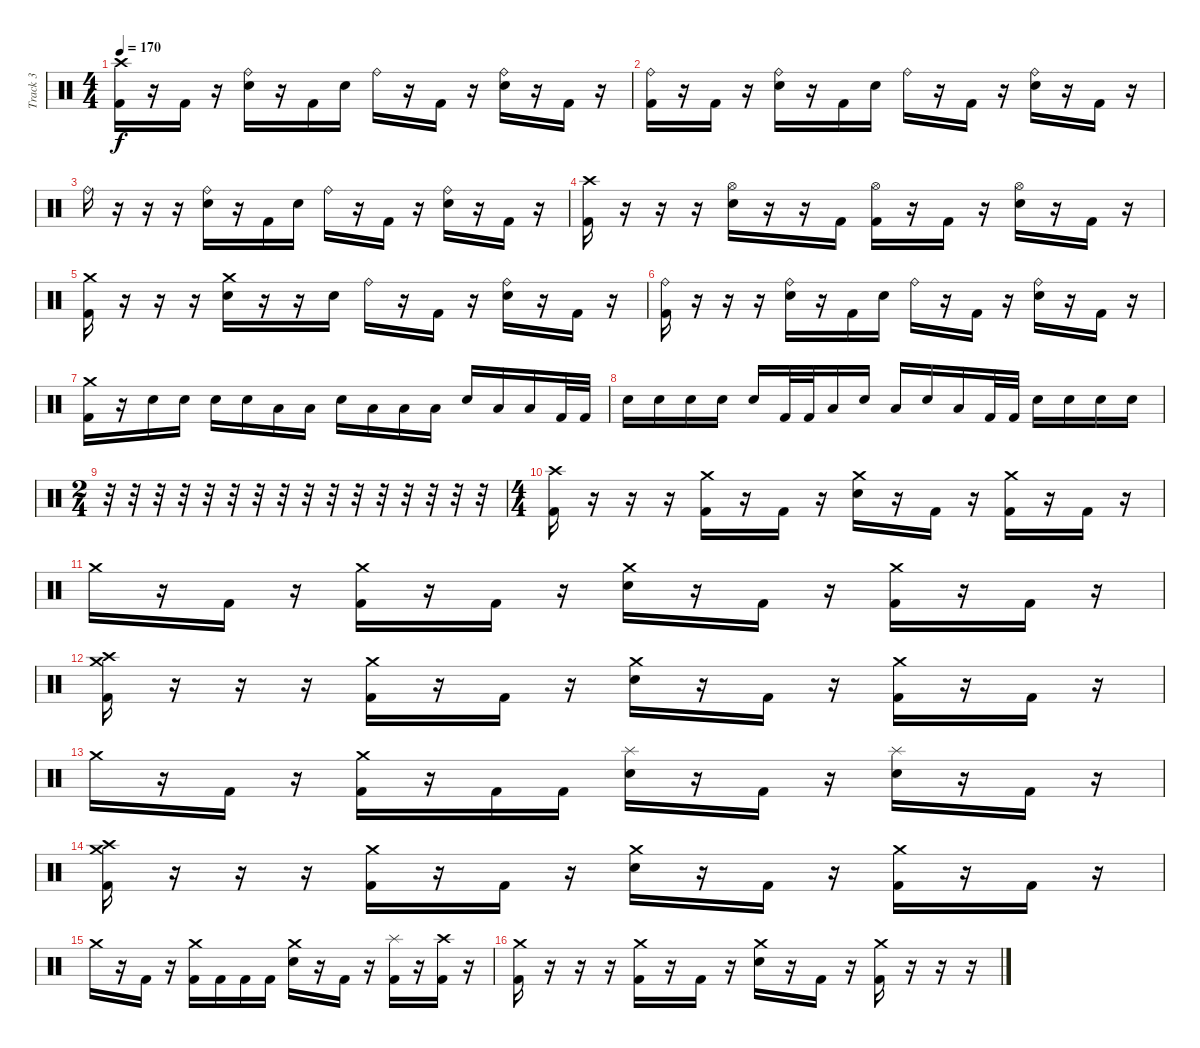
\track ("Track 3" "Track 3") {instrument percussion}
\staff {score}
\articulation defaults
\ts (4 4)
\tempo 170
\clef neutral
\ks c
("Kick (hit) 2" "Crash high (hit)").16{dy f} r.16 "Kick (hit) 2".16 r.16 ("Ride (bell)" "Electric Snare (hit)").16 r.16 "Kick (hit) 2".16 "Electric Snare (hit)".16 "Ride (bell)".16 r.16 "Kick (hit) 2".16 r.16 ("Electric Snare (hit)" "Ride (bell)").16 r.16 "Kick (hit) 2".16 r.16 |
("Ride (bell)" "Kick (hit) 2").16 r.16 "Kick (hit) 2".16 r.16 ("Ride (bell)" "Electric Snare (hit)").16 r.16 "Kick (hit) 2".16 "Electric Snare (hit)".16 "Ride (bell)".16 r.16 "Kick (hit) 2".16 r.16 ("Ride (bell)" "Electric Snare (hit)").16 r.16 "Kick (hit) 2".16 r.16 |
"Ride (bell)".16 r.16 r.16 r.16 ("Ride (bell)" "Electric Snare (hit)").16 r.16 "Kick (hit) 2".16 "Electric Snare (hit)".16 "Ride (bell)".16 r.16 "Kick (hit) 2".16 r.16 ("Ride (bell)" "Electric Snare (hit)").16 r.16 "Kick (hit) 2".16 r.16 |
("Kick (hit) 2" "Crash high (hit)").16 r.16 r.16 r.16 ("Hi-Hat (open)" "Electric Snare (hit)").16 r.16 r.16 "Kick (hit) 2".16 ("Hi-Hat (open)" "Kick (hit) 2").16 r.16 "Kick (hit) 2".16 r.16 ("Hi-Hat (open)" "Electric Snare (hit)").16 r.16 "Kick (hit) 2".16 r.16 |
("Kick (hit) 2" "Crash medium (hit)").16 r.16 r.16 r.16 ("Crash medium (hit)" "Electric Snare (hit)").16 r.16 r.16 "Electric Snare (hit)".16 "Ride (bell)".16 r.16 "Kick (hit) 2".16 r.16 ("Electric Snare (hit)" "Ride (bell)").16 r.16 "Kick (hit) 2".16 r.16 |
("Kick (hit) 2" "Ride (bell)").16 r.16 r.16 r.16 ("Ride (bell)" "Electric Snare (hit)").16 r.16 "Kick (hit) 2".16 "Electric Snare (hit)".16 "Ride (bell)".16 r.16 "Kick (hit) 2".16 r.16 ("Ride (bell)" "Electric Snare (hit)").16 r.16 "Kick (hit) 2".16 r.16 |
("Kick (hit) 2" "Crash medium (hit)").16 r.16 "Electric Snare (hit)".16 "Electric Snare (hit)".16 "Electric Snare (hit)".16 "Electric Snare (hit)".16 "Low Tom (hit)".16 "Low Tom (hit)".16 "Electric Snare (hit)".16 "Low Tom (hit)".16 "Low Tom (hit)".16 "Low Tom (hit)".16 "Electric Snare (hit)".16 "Low Tom (hit)".16 "Low Floor Tom (hit)".16 "Kick (hit) 2".32 "Kick (hit) 2".32 |
"Electric Snare (hit)".16 "Electric Snare (hit)".16 "Electric Snare (hit)".16 "Electric Snare (hit)".16 "Electric Snare (hit)".16 "Kick (hit) 2".32 "Kick (hit) 2".32 "Low Floor Tom (hit)".16 "Electric Snare (hit)".16 "Low Floor Tom (hit)".16 "Electric Snare (hit)".16 "Low Floor Tom (hit)".16 "Kick (hit) 2".32 "Kick (hit) 2".32 "Electric Snare (hit)".16 "Electric Snare (hit)".16 "Electric Snare (hit)".16 "Electric Snare (hit)".16 |
\ts (2 4)
r.32 r.32 r.32 r.32 r.32 r.32 r.32 r.32 r.32 r.32 r.32 r.32 r.32 r.32 r.32 r.32 |
\ts (4 4)
("Kick (hit) 2" "Crash high (hit)").16 r.16 r.16 r.16 ("Crash medium (hit)" "Kick (hit) 2").16 r.16 "Kick (hit) 2".16 r.16 ("Crash medium (hit)" "Electric Snare (hit)").16 r.16 "Kick (hit) 2".16 r.16 ("Crash medium (hit)" "Kick (hit) 2").16 r.16 "Kick (hit) 2".16 r.16 |
"Crash medium (hit)".16 r.16 "Kick (hit) 2".16 r.16 ("Crash medium (hit)" "Kick (hit) 2").16 r.16 "Kick (hit) 2".16 r.16 ("Crash medium (hit)" "Electric Snare (hit)").16 r.16 "Kick (hit) 2".16 r.16 ("Crash medium (hit)" "Kick (hit) 2").16 r.16 "Kick (hit) 2".16 r.16 |
("Kick (hit) 2" "Crash high (hit)" "Crash medium (hit)").16 r.16 r.16 r.16 ("Crash medium (hit)" "Kick (hit) 2").16 r.16 "Kick (hit) 2".16 r.16 ("Crash medium (hit)" "Electric Snare (hit)").16 r.16 "Kick (hit) 2".16 r.16 ("Crash medium (hit)" "Kick (hit) 2").16 r.16 "Kick (hit) 2".16 r.16 |
"Crash medium (hit)".16 r.16 "Kick (hit) 2".16 r.16 ("Crash medium (hit)" "Kick (hit) 2").16 r.16 "Kick (hit) 2".16 "Kick (hit) 2".16 ("Electric Snare (hit)" "Splash (hit)").16 r.16 "Kick (hit) 2".16 r.16 ("Splash (hit)" "Electric Snare (hit)").16 r.16 "Kick (hit) 2".16 r.16 |
("Kick (hit) 2" "Crash medium (hit)" "Crash high (hit)").16 r.16 r.16 r.16 ("Crash medium (hit)" "Kick (hit) 2").16 r.16 "Kick (hit) 2".16 r.16 ("Crash medium (hit)" "Electric Snare (hit)").16 r.16 "Kick (hit) 2".16 r.16 ("Crash medium (hit)" "Kick (hit) 2").16 r.16 "Kick (hit) 2".16 r.16 |
"Crash medium (hit)".16 r.16 "Kick (hit) 2".16 r.16 ("Crash medium (hit)" "Kick (hit) 2").16 "Kick (hit) 2".16 "Kick (hit) 2".16 "Kick (hit) 2".16 ("Crash medium (hit)" "Electric Snare (hit)").16 r.16 "Kick (hit) 2".16 r.16 ("Splash (hit)" "Kick (hit) 2").16 r.16 ("Kick (hit) 2" "Crash high (hit)").16 r.16 |
("Kick (hit) 2" "Crash medium (hit)").16 r.16 r.16 r.16 ("Crash medium (hit)" "Kick (hit) 2").16 r.16 "Kick (hit) 2".16 r.16 ("Crash medium (hit)" "Electric Snare (hit)").16 r.16 "Kick (hit) 2".16 r.16 ("Crash medium (hit)" "Kick (hit) 2").16 r.16 r.16 r.16
